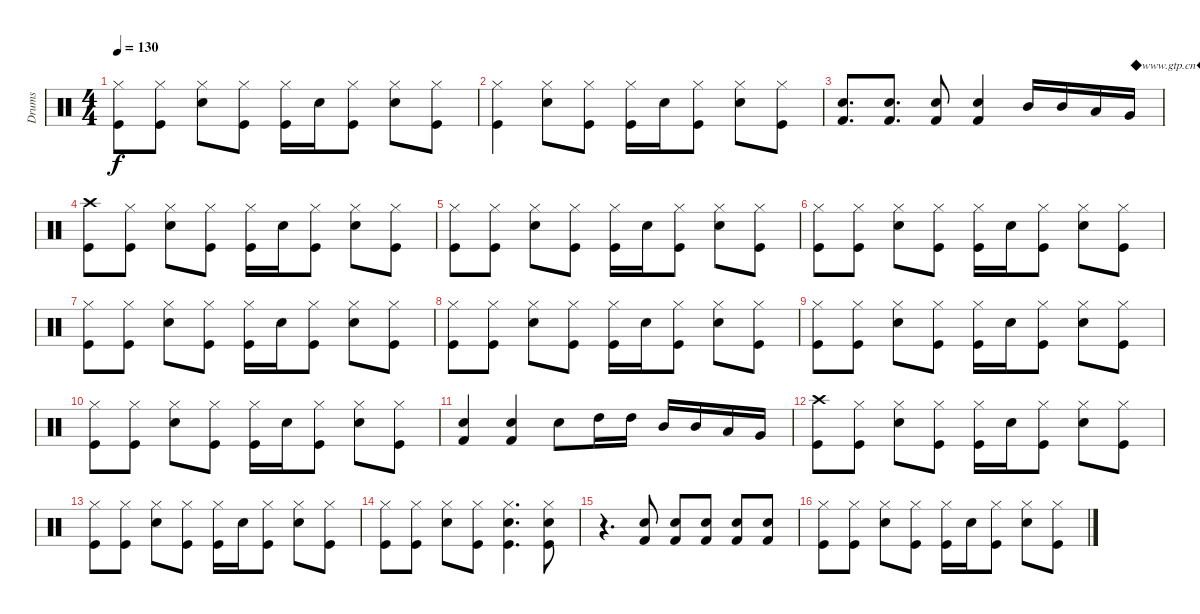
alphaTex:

\track ("Drums" "Drums") {instrument percussion}
\staff {score}
\articulation defaults
\ts (4 4)
\tempo 130
\clef neutral
\ks c
("Hi-Hat (closed)" "Kick (hit)").8{dy f} ("Hi-Hat (closed)" "Kick (hit)").8 ("Hi-Hat (closed)" "Snare (hit) 2").8 ("Hi-Hat (closed)" "Kick (hit)").8 ("Hi-Hat (closed)" "Kick (hit)").16 "Snare (hit) 2".16 ("Hi-Hat (closed)" "Kick (hit)").8 ("Hi-Hat (closed)" "Snare (hit) 2").8 ("Hi-Hat (closed)" "Kick (hit)").8 |
("Hi-Hat (closed)" "Kick (hit)").4 ("Hi-Hat (closed)" "Snare (hit) 2").8 ("Hi-Hat (closed)" "Kick (hit)").8 ("Hi-Hat (closed)" "Kick (hit)").16 "Snare (hit) 2".16 ("Hi-Hat (closed)" "Kick (hit)").8 ("Hi-Hat (closed)" "Snare (hit) 2").8 ("Hi-Hat (closed)" "Kick (hit)").8 |
("Kick (hit) 2" "Snare (hit) 2").8{d} ("Kick (hit) 2" "Snare (hit) 2").8{d} ("Kick (hit) 2" "Snare (hit) 2").8 ("Kick (hit) 2" "Snare (hit) 2").4 "Mid Tom (hit)".16 "Mid Tom (hit)".16 "Low Tom (hit)".16 "Very Low Tom (hit)".16{txt "◆www.gtp.cn◆GTP中文网为您提供优秀的GTP！"} |
("Crash high (hit)" "Kick (hit)").8 ("Hi-Hat (closed)" "Kick (hit)").8 ("Hi-Hat (closed)" "Snare (hit) 2").8 ("Hi-Hat (closed)" "Kick (hit)").8 ("Hi-Hat (closed)" "Kick (hit)").16 "Snare (hit) 2".16 ("Hi-Hat (closed)" "Kick (hit)").8 ("Hi-Hat (closed)" "Snare (hit) 2").8 ("Hi-Hat (closed)" "Kick (hit)").8 |
("Hi-Hat (closed)" "Kick (hit)").8 ("Hi-Hat (closed)" "Kick (hit)").8 ("Hi-Hat (closed)" "Snare (hit) 2").8 ("Hi-Hat (closed)" "Kick (hit)").8 ("Hi-Hat (closed)" "Kick (hit)").16 "Snare (hit) 2".16 ("Hi-Hat (closed)" "Kick (hit)").8 ("Hi-Hat (closed)" "Snare (hit) 2").8 ("Hi-Hat (closed)" "Kick (hit)").8 |
("Hi-Hat (closed)" "Kick (hit)").8 ("Hi-Hat (closed)" "Kick (hit)").8 ("Hi-Hat (closed)" "Snare (hit) 2").8 ("Hi-Hat (closed)" "Kick (hit)").8 ("Hi-Hat (closed)" "Kick (hit)").16 "Snare (hit) 2".16 ("Hi-Hat (closed)" "Kick (hit)").8 ("Hi-Hat (closed)" "Snare (hit) 2").8 ("Hi-Hat (closed)" "Kick (hit)").8 |
("Hi-Hat (closed)" "Kick (hit)").8 ("Hi-Hat (closed)" "Kick (hit)").8 ("Hi-Hat (closed)" "Snare (hit) 2").8 ("Hi-Hat (closed)" "Kick (hit)").8 ("Hi-Hat (closed)" "Kick (hit)").16 "Snare (hit) 2".16 ("Hi-Hat (closed)" "Kick (hit)").8 ("Hi-Hat (closed)" "Snare (hit) 2").8 ("Hi-Hat (closed)" "Kick (hit)").8 |
("Hi-Hat (closed)" "Kick (hit)").8 ("Hi-Hat (closed)" "Kick (hit)").8 ("Hi-Hat (closed)" "Snare (hit) 2").8 ("Hi-Hat (closed)" "Kick (hit)").8 ("Hi-Hat (closed)" "Kick (hit)").16 "Snare (hit) 2".16 ("Hi-Hat (closed)" "Kick (hit)").8 ("Hi-Hat (closed)" "Snare (hit) 2").8 ("Hi-Hat (closed)" "Kick (hit)").8 |
("Hi-Hat (closed)" "Kick (hit)").8 ("Hi-Hat (closed)" "Kick (hit)").8 ("Hi-Hat (closed)" "Snare (hit) 2").8 ("Hi-Hat (closed)" "Kick (hit)").8 ("Hi-Hat (closed)" "Kick (hit)").16 "Snare (hit) 2".16 ("Hi-Hat (closed)" "Kick (hit)").8 ("Hi-Hat (closed)" "Snare (hit) 2").8 ("Hi-Hat (closed)" "Kick (hit)").8 |
("Hi-Hat (closed)" "Kick (hit)").8 ("Hi-Hat (closed)" "Kick (hit)").8 ("Hi-Hat (closed)" "Snare (hit) 2").8 ("Hi-Hat (closed)" "Kick (hit)").8 ("Hi-Hat (closed)" "Kick (hit)").16 "Snare (hit) 2".16 ("Hi-Hat (closed)" "Kick (hit)").8 ("Hi-Hat (closed)" "Snare (hit) 2").8 ("Hi-Hat (closed)" "Kick (hit)").8 |
("Kick (hit) 2" "Snare (hit) 2").4 ("Kick (hit) 2" "Snare (hit) 2").4 "Snare (hit) 2".8 "High Tom (hit)".16 "High Tom (hit)".16 "Mid Tom (hit)".16 "Mid Tom (hit)".16 "Low Tom (hit)".16 "Very Low Tom (hit)".16 |
("Crash high (hit)" "Kick (hit)").8 ("Hi-Hat (closed)" "Kick (hit)").8 ("Hi-Hat (closed)" "Snare (hit) 2").8 ("Hi-Hat (closed)" "Kick (hit)").8 ("Hi-Hat (closed)" "Kick (hit)").16 "Snare (hit) 2".16 ("Hi-Hat (closed)" "Kick (hit)").8 ("Hi-Hat (closed)" "Snare (hit) 2").8 ("Hi-Hat (closed)" "Kick (hit)").8 |
("Hi-Hat (closed)" "Kick (hit)").8 ("Hi-Hat (closed)" "Kick (hit)").8 ("Hi-Hat (closed)" "Snare (hit) 2").8 ("Hi-Hat (closed)" "Kick (hit)").8 ("Hi-Hat (closed)" "Kick (hit)").16 "Snare (hit) 2".16 ("Hi-Hat (closed)" "Kick (hit)").8 ("Hi-Hat (closed)" "Snare (hit) 2").8 ("Hi-Hat (closed)" "Kick (hit)").8 |
("Hi-Hat (closed)" "Kick (hit)").8 ("Hi-Hat (closed)" "Kick (hit)").8 ("Hi-Hat (closed)" "Snare (hit) 2").8 ("Hi-Hat (closed)" "Kick (hit)").8 ("Hi-Hat (closed)" "Snare (hit) 2" "Kick (hit)").4{d} ("Hi-Hat (closed)" "Snare (hit) 2" "Kick (hit)").8 |
r.4{d} ("Kick (hit) 2" "Snare (hit) 2").8 ("Kick (hit) 2" "Snare (hit) 2").8 ("Kick (hit) 2" "Snare (hit) 2").8 ("Kick (hit) 2" "Snare (hit) 2").8 ("Kick (hit) 2" "Snare (hit) 2").8 |
("Hi-Hat (closed)" "Kick (hit)").8 ("Hi-Hat (closed)" "Kick (hit)").8 ("Hi-Hat (closed)" "Snare (hit) 2").8 ("Hi-Hat (closed)" "Kick (hit)").8 ("Hi-Hat (closed)" "Kick (hit)").16 "Snare (hit) 2".16 ("Hi-Hat (closed)" "Kick (hit)").8 ("Hi-Hat (closed)" "Snare (hit) 2").8 ("Hi-Hat (closed)" "Kick (hit)").8
